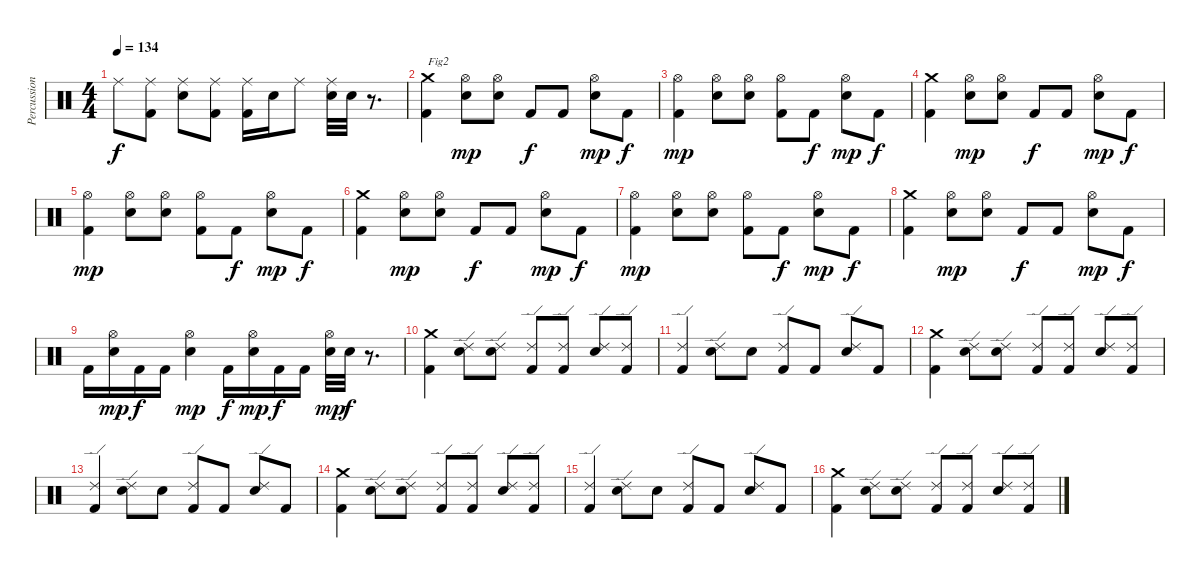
\track ("Percussions" "Percussion") {instrument percussion}
\staff {score}
\articulation defaults
\ts (4 4)
\tempo 134
\clef neutral
\ks c "Ride (middle)".8{dy f}
("Kick (hit) 2" "Ride (middle)").8 ("Electric Snare (hit)" "Ride (middle)").8 ("Kick (hit) 2" "Ride (middle)").8 ("Kick (hit) 2" "Ride (middle)").16 "Electric Snare (hit)".16 "Ride (middle)".8 ("Electric Snare (hit)" "Ride (middle)").32 "Electric Snare (hit)".32 r.8{d} |
("Kick (hit) 2" "Crash medium (hit)").4{txt "Fig2"} ("Electric Snare (hit)" "Hi-Hat (open)").8{dy mp} ("Electric Snare (hit)" "Hi-Hat (open)").8 "Kick (hit) 2".8{dy f} "Kick (hit) 2".8 ("Electric Snare (hit)" "Hi-Hat (open)").8{dy mp} "Kick (hit) 2".8{dy f} |
("Kick (hit) 2" "Hi-Hat (open)").4{dy mp} ("Electric Snare (hit)" "Hi-Hat (open)").8 ("Electric Snare (hit)" "Hi-Hat (open)").8 ("Kick (hit) 2" "Hi-Hat (open)").8 "Kick (hit) 2".8{dy f} ("Electric Snare (hit)" "Hi-Hat (open)").8{dy mp} "Kick (hit) 2".8{dy f} |
("Kick (hit) 2" "Crash medium (hit)").4 ("Electric Snare (hit)" "Hi-Hat (open)").8{dy mp} ("Electric Snare (hit)" "Hi-Hat (open)").8 "Kick (hit) 2".8{dy f} "Kick (hit) 2".8 ("Electric Snare (hit)" "Hi-Hat (open)").8{dy mp} "Kick (hit) 2".8{dy f} |
("Kick (hit) 2" "Hi-Hat (open)").4{dy mp} ("Electric Snare (hit)" "Hi-Hat (open)").8 ("Electric Snare (hit)" "Hi-Hat (open)").8 ("Kick (hit) 2" "Hi-Hat (open)").8 "Kick (hit) 2".8{dy f} ("Electric Snare (hit)" "Hi-Hat (open)").8{dy mp} "Kick (hit) 2".8{dy f} |
("Kick (hit) 2" "Crash medium (hit)").4 ("Electric Snare (hit)" "Hi-Hat (open)").8{dy mp} ("Electric Snare (hit)" "Hi-Hat (open)").8 "Kick (hit) 2".8{dy f} "Kick (hit) 2".8 ("Electric Snare (hit)" "Hi-Hat (open)").8{dy mp} "Kick (hit) 2".8{dy f} |
("Kick (hit) 2" "Hi-Hat (open)").4{dy mp} ("Electric Snare (hit)" "Hi-Hat (open)").8 ("Electric Snare (hit)" "Hi-Hat (open)").8 ("Kick (hit) 2" "Hi-Hat (open)").8 "Kick (hit) 2".8{dy f} ("Electric Snare (hit)" "Hi-Hat (open)").8{dy mp} "Kick (hit) 2".8{dy f} |
("Kick (hit) 2" "Crash medium (hit)").4 ("Electric Snare (hit)" "Hi-Hat (open)").8{dy mp} ("Electric Snare (hit)" "Hi-Hat (open)").8 "Kick (hit) 2".8{dy f} "Kick (hit) 2".8 ("Electric Snare (hit)" "Hi-Hat (open)").8{dy mp} "Kick (hit) 2".8{dy f} |
"Kick (hit) 2".16 ("Electric Snare (hit)" "Hi-Hat (open)").16{dy mp} "Kick (hit) 2".16{dy f} "Kick (hit) 2".16 ("Electric Snare (hit)" "Hi-Hat (open)").4{dy mp} "Kick (hit) 2".16{dy f} ("Electric Snare (hit)" "Hi-Hat (open)").16{dy mp} "Kick (hit) 2".16{dy f} "Kick (hit) 2".16 ("Electric Snare (hit)" "Hi-Hat (open)").32{dy mp} "Electric Snare (hit)".32{dy f} r.8{d} |
("Kick (hit) 2" "Crash medium (hit)").4 ("Electric Snare (hit)" "Ride (edge) 2").8 ("Electric Snare (hit)" "Ride (edge) 2").8 ("Kick (hit) 2" "Ride (edge) 2").8 ("Kick (hit) 2" "Ride (edge) 2").8 ("Electric Snare (hit)" "Ride (edge) 2").8 ("Kick (hit) 2" "Ride (edge) 2").8 |
("Kick (hit) 2" "Ride (edge) 2").4 ("Electric Snare (hit)" "Ride (edge) 2").8 "Electric Snare (hit)".8 ("Kick (hit) 2" "Ride (edge) 2").8 "Kick (hit) 2".8 ("Electric Snare (hit)" "Ride (edge) 2").8 "Kick (hit) 2".8 |
("Kick (hit) 2" "Crash medium (hit)").4 ("Electric Snare (hit)" "Ride (edge) 2").8 ("Electric Snare (hit)" "Ride (edge) 2").8 ("Kick (hit) 2" "Ride (edge) 2").8 ("Kick (hit) 2" "Ride (edge) 2").8 ("Electric Snare (hit)" "Ride (edge) 2").8 ("Kick (hit) 2" "Ride (edge) 2").8 |
("Kick (hit) 2" "Ride (edge) 2").4 ("Electric Snare (hit)" "Ride (edge) 2").8 "Electric Snare (hit)".8 ("Kick (hit) 2" "Ride (edge) 2").8 "Kick (hit) 2".8 ("Electric Snare (hit)" "Ride (edge) 2").8 "Kick (hit) 2".8 |
("Kick (hit) 2" "Crash medium (hit)").4 ("Electric Snare (hit)" "Ride (edge) 2").8 ("Electric Snare (hit)" "Ride (edge) 2").8 ("Kick (hit) 2" "Ride (edge) 2").8 ("Kick (hit) 2" "Ride (edge) 2").8 ("Electric Snare (hit)" "Ride (edge) 2").8 ("Kick (hit) 2" "Ride (edge) 2").8 |
("Kick (hit) 2" "Ride (edge) 2").4 ("Electric Snare (hit)" "Ride (edge) 2").8 "Electric Snare (hit)".8 ("Kick (hit) 2" "Ride (edge) 2").8 "Kick (hit) 2".8 ("Electric Snare (hit)" "Ride (edge) 2").8 "Kick (hit) 2".8 |
("Kick (hit) 2" "Crash medium (hit)").4 ("Electric Snare (hit)" "Ride (edge) 2").8 ("Electric Snare (hit)" "Ride (edge) 2").8 ("Kick (hit) 2" "Ride (edge) 2").8 ("Kick (hit) 2" "Ride (edge) 2").8 ("Electric Snare (hit)" "Ride (edge) 2").8 ("Kick (hit) 2" "Ride (edge) 2").8
